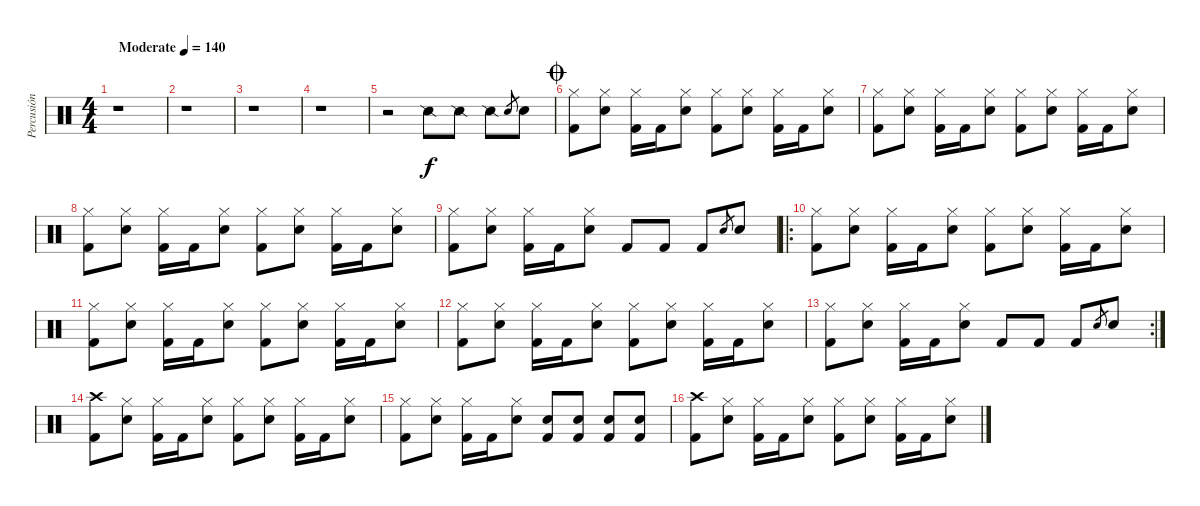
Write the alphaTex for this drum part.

\track ("Percusión" "Percusión") {instrument percussion}
\staff {score}
\articulation defaults
\ts (4 4)
\tempo (140 "Moderate")
\clef neutral
\ks c
r.1{dy f} |
r.1 |
r.1 |
r.1 |
r.2 "Snare (side stick) 2".8 "Snare (side stick) 2".8 "Snare (side stick) 2".8 "Snare (hit) 2".8{gr} "Snare (hit) 2".8 |
\jump coda
("Hi-Hat (closed)" "Kick (hit) 2").8 ("Hi-Hat (closed)" "Snare (hit) 2").8 ("Hi-Hat (closed)" "Kick (hit) 2").16 "Kick (hit) 2".16 ("Hi-Hat (closed)" "Snare (hit) 2").8 ("Hi-Hat (closed)" "Kick (hit) 2").8 ("Hi-Hat (closed)" "Snare (hit) 2").8 ("Hi-Hat (closed)" "Kick (hit) 2").16 "Kick (hit) 2".16 ("Hi-Hat (closed)" "Snare (hit) 2").8 |
("Hi-Hat (closed)" "Kick (hit) 2").8 ("Hi-Hat (closed)" "Snare (hit) 2").8 ("Hi-Hat (closed)" "Kick (hit) 2").16 "Kick (hit) 2".16 ("Hi-Hat (closed)" "Snare (hit) 2").8 ("Hi-Hat (closed)" "Kick (hit) 2").8 ("Hi-Hat (closed)" "Snare (hit) 2").8 ("Hi-Hat (closed)" "Kick (hit) 2").16 "Kick (hit) 2".16 ("Hi-Hat (closed)" "Snare (hit) 2").8 |
("Hi-Hat (closed)" "Kick (hit) 2").8 ("Hi-Hat (closed)" "Snare (hit) 2").8 ("Hi-Hat (closed)" "Kick (hit) 2").16 "Kick (hit) 2".16 ("Hi-Hat (closed)" "Snare (hit) 2").8 ("Hi-Hat (closed)" "Kick (hit) 2").8 ("Hi-Hat (closed)" "Snare (hit) 2").8 ("Hi-Hat (closed)" "Kick (hit) 2").16 "Kick (hit) 2".16 ("Hi-Hat (closed)" "Snare (hit) 2").8 |
("Hi-Hat (closed)" "Kick (hit) 2").8 ("Hi-Hat (closed)" "Snare (hit) 2").8 ("Hi-Hat (closed)" "Kick (hit) 2").16 "Kick (hit) 2".16 ("Hi-Hat (closed)" "Snare (hit) 2").8 "Kick (hit) 2".8 "Kick (hit) 2".8 "Kick (hit) 2".8 "Snare (hit) 2".8{gr} "Snare (hit) 2".8 |
\ro
("Hi-Hat (closed)" "Kick (hit) 2").8 ("Hi-Hat (closed)" "Snare (hit) 2").8 ("Hi-Hat (closed)" "Kick (hit) 2").16 "Kick (hit) 2".16 ("Hi-Hat (closed)" "Snare (hit) 2").8 ("Hi-Hat (closed)" "Kick (hit) 2").8 ("Hi-Hat (closed)" "Snare (hit) 2").8 ("Hi-Hat (closed)" "Kick (hit) 2").16 "Kick (hit) 2".16 ("Hi-Hat (closed)" "Snare (hit) 2").8 |
("Hi-Hat (closed)" "Kick (hit) 2").8 ("Hi-Hat (closed)" "Snare (hit) 2").8 ("Hi-Hat (closed)" "Kick (hit) 2").16 "Kick (hit) 2".16 ("Hi-Hat (closed)" "Snare (hit) 2").8 ("Hi-Hat (closed)" "Kick (hit) 2").8 ("Hi-Hat (closed)" "Snare (hit) 2").8 ("Hi-Hat (closed)" "Kick (hit) 2").16 "Kick (hit) 2".16 ("Hi-Hat (closed)" "Snare (hit) 2").8 |
("Hi-Hat (closed)" "Kick (hit) 2").8 ("Hi-Hat (closed)" "Snare (hit) 2").8 ("Hi-Hat (closed)" "Kick (hit) 2").16 "Kick (hit) 2".16 ("Hi-Hat (closed)" "Snare (hit) 2").8 ("Hi-Hat (closed)" "Kick (hit) 2").8 ("Hi-Hat (closed)" "Snare (hit) 2").8 ("Hi-Hat (closed)" "Kick (hit) 2").16 "Kick (hit) 2".16 ("Hi-Hat (closed)" "Snare (hit) 2").8 |
\rc 2
("Hi-Hat (closed)" "Kick (hit) 2").8 ("Hi-Hat (closed)" "Snare (hit) 2").8 ("Hi-Hat (closed)" "Kick (hit) 2").16 "Kick (hit) 2".16 ("Hi-Hat (closed)" "Snare (hit) 2").8 "Kick (hit) 2".8 "Kick (hit) 2".8 "Kick (hit) 2".8 "Snare (hit) 2".8{gr} "Snare (hit) 2".8 |
("Crash high (hit)" "Kick (hit) 2").8 ("Hi-Hat (closed)" "Snare (hit) 2").8 ("Hi-Hat (closed)" "Kick (hit) 2").16 "Kick (hit) 2".16 ("Hi-Hat (closed)" "Snare (hit) 2").8 ("Hi-Hat (closed)" "Kick (hit) 2").8 ("Hi-Hat (closed)" "Snare (hit) 2").8 ("Hi-Hat (closed)" "Kick (hit) 2").16 "Kick (hit) 2".16 ("Hi-Hat (closed)" "Snare (hit) 2").8 |
("Hi-Hat (closed)" "Kick (hit) 2").8 ("Hi-Hat (closed)" "Snare (hit) 2").8 ("Hi-Hat (closed)" "Kick (hit) 2").16 "Kick (hit) 2".16 ("Hi-Hat (closed)" "Snare (hit) 2").8 ("Snare (hit) 2" "Kick (hit) 2").8 ("Snare (hit) 2" "Kick (hit) 2").8 ("Snare (hit) 2" "Kick (hit) 2").8 ("Snare (hit) 2" "Kick (hit) 2").8 |
("Crash high (hit)" "Kick (hit) 2").8 ("Hi-Hat (closed)" "Snare (hit) 2").8 ("Hi-Hat (closed)" "Kick (hit) 2").16 "Kick (hit) 2".16 ("Hi-Hat (closed)" "Snare (hit) 2").8 ("Hi-Hat (closed)" "Kick (hit) 2").8 ("Hi-Hat (closed)" "Snare (hit) 2").8 ("Hi-Hat (closed)" "Kick (hit) 2").16 "Kick (hit) 2".16 ("Hi-Hat (closed)" "Snare (hit) 2").8
